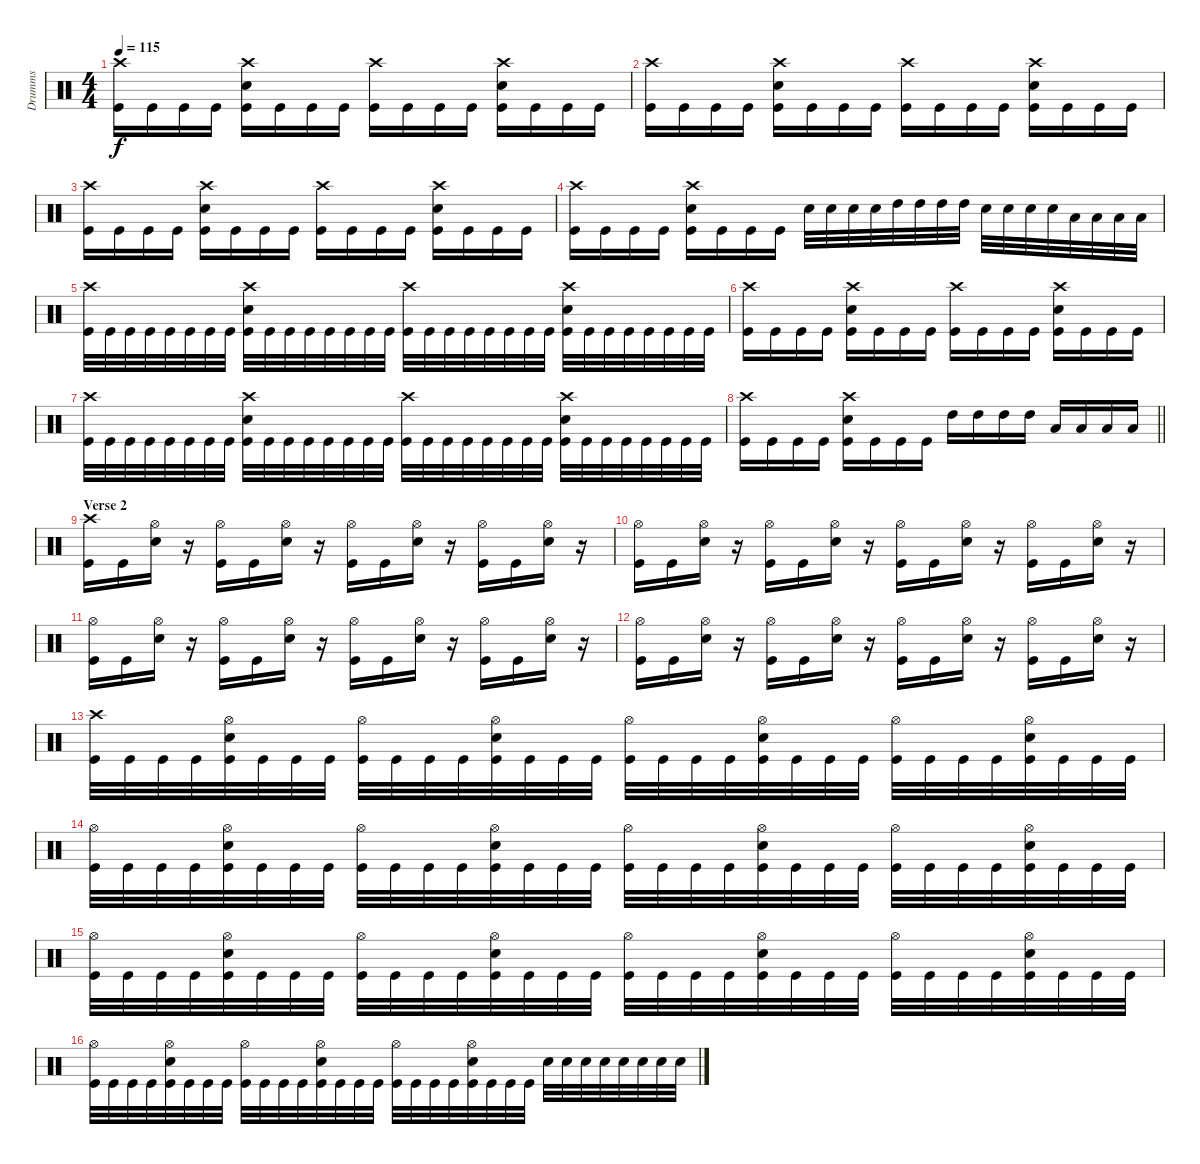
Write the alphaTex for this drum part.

\track ("Drumms" "Drumms") {instrument percussion}
\staff {score}
\articulation defaults
\ts (4 4)
\tempo 115
\clef neutral
\ks c
("Crash high (hit)" "Kick (hit)").16{dy f} "Kick (hit)".16 "Kick (hit)".16 "Kick (hit)".16 ("Crash high (hit)" "Snare (hit) 2" "Kick (hit)").16 "Kick (hit)".16 "Kick (hit)".16 "Kick (hit)".16 ("Crash high (hit)" "Kick (hit)").16 "Kick (hit)".16 "Kick (hit)".16 "Kick (hit)".16 ("Crash high (hit)" "Snare (hit) 2" "Kick (hit)").16 "Kick (hit)".16 "Kick (hit)".16 "Kick (hit)".16 |
("Crash high (hit)" "Kick (hit)").16 "Kick (hit)".16 "Kick (hit)".16 "Kick (hit)".16 ("Crash high (hit)" "Snare (hit) 2" "Kick (hit)").16 "Kick (hit)".16 "Kick (hit)".16 "Kick (hit)".16 ("Crash high (hit)" "Kick (hit)").16 "Kick (hit)".16 "Kick (hit)".16 "Kick (hit)".16 ("Crash high (hit)" "Snare (hit) 2" "Kick (hit)").16 "Kick (hit)".16 "Kick (hit)".16 "Kick (hit)".16 |
("Crash high (hit)" "Kick (hit)").16 "Kick (hit)".16 "Kick (hit)".16 "Kick (hit)".16 ("Crash high (hit)" "Snare (hit) 2" "Kick (hit)").16 "Kick (hit)".16 "Kick (hit)".16 "Kick (hit)".16 ("Crash high (hit)" "Kick (hit)").16 "Kick (hit)".16 "Kick (hit)".16 "Kick (hit)".16 ("Crash high (hit)" "Snare (hit) 2" "Kick (hit)").16 "Kick (hit)".16 "Kick (hit)".16 "Kick (hit)".16 |
("Crash high (hit)" "Kick (hit)").16 "Kick (hit)".16 "Kick (hit)".16 "Kick (hit)".16 ("Crash high (hit)" "Snare (hit) 2" "Kick (hit)").16 "Kick (hit)".16 "Kick (hit)".16 "Kick (hit)".16 "Snare (hit) 2".32 "Snare (hit) 2".32 "Snare (hit) 2".32 "Snare (hit) 2".32 "High Tom (hit)".32 "High Tom (hit)".32 "High Tom (hit)".32 "High Tom (hit)".32 "Snare (hit) 2".32 "Snare (hit) 2".32 "Snare (hit) 2".32 "Snare (hit) 2".32 "Low Tom (hit)".32 "Low Tom (hit)".32 "Low Tom (hit)".32 "Low Tom (hit)".32 |
("Crash high (hit)" "Kick (hit)").32 "Kick (hit)".32 "Kick (hit)".32 "Kick (hit)".32 "Kick (hit)".32 "Kick (hit)".32 "Kick (hit)".32 "Kick (hit)".32 ("Crash high (hit)" "Snare (hit) 2" "Kick (hit)").32 "Kick (hit)".32 "Kick (hit)".32 "Kick (hit)".32 "Kick (hit)".32 "Kick (hit)".32 "Kick (hit)".32 "Kick (hit)".32 ("Crash high (hit)" "Kick (hit)").32 "Kick (hit)".32 "Kick (hit)".32 "Kick (hit)".32 "Kick (hit)".32 "Kick (hit)".32 "Kick (hit)".32 "Kick (hit)".32 ("Crash high (hit)" "Snare (hit) 2" "Kick (hit)").32 "Kick (hit)".32 "Kick (hit)".32 "Kick (hit)".32 "Kick (hit)".32 "Kick (hit)".32 "Kick (hit)".32 "Kick (hit)".32 |
("Crash high (hit)" "Kick (hit)").16 "Kick (hit)".16 "Kick (hit)".16 "Kick (hit)".16 ("Crash high (hit)" "Snare (hit) 2" "Kick (hit)").16 "Kick (hit)".16 "Kick (hit)".16 "Kick (hit)".16 ("Crash high (hit)" "Kick (hit)").16 "Kick (hit)".16 "Kick (hit)".16 "Kick (hit)".16 ("Crash high (hit)" "Snare (hit) 2" "Kick (hit)").16 "Kick (hit)".16 "Kick (hit)".16 "Kick (hit)".16 |
("Crash high (hit)" "Kick (hit)").32 "Kick (hit)".32 "Kick (hit)".32 "Kick (hit)".32 "Kick (hit)".32 "Kick (hit)".32 "Kick (hit)".32 "Kick (hit)".32 ("Crash high (hit)" "Snare (hit) 2" "Kick (hit)").32 "Kick (hit)".32 "Kick (hit)".32 "Kick (hit)".32 "Kick (hit)".32 "Kick (hit)".32 "Kick (hit)".32 "Kick (hit)".32 ("Crash high (hit)" "Kick (hit)").32 "Kick (hit)".32 "Kick (hit)".32 "Kick (hit)".32 "Kick (hit)".32 "Kick (hit)".32 "Kick (hit)".32 "Kick (hit)".32 ("Crash high (hit)" "Snare (hit) 2" "Kick (hit)").32 "Kick (hit)".32 "Kick (hit)".32 "Kick (hit)".32 "Kick (hit)".32 "Kick (hit)".32 "Kick (hit)".32 "Kick (hit)".32 |
\barLineRight lightlight
("Crash high (hit)" "Kick (hit)").16 "Kick (hit)".16 "Kick (hit)".16 "Kick (hit)".16 ("Crash high (hit)" "Snare (hit) 2" "Kick (hit)").16 "Kick (hit)".16 "Kick (hit)".16 "Kick (hit)".16 "High Tom (hit)".16 "High Tom (hit)".16 "High Tom (hit)".16 "High Tom (hit)".16 "Low Tom (hit)".16 "Low Tom (hit)".16 "Low Tom (hit)".16 "Low Tom (hit)".16 |
\section ("" "Verse 2")
("Crash high (hit)" "Kick (hit)").16 "Kick (hit)".16 ("Hi-Hat (open)" "Snare (hit) 2").16 r.16 ("Hi-Hat (open)" "Kick (hit)").16 "Kick (hit)".16 ("Hi-Hat (open)" "Snare (hit) 2").16 r.16 ("Hi-Hat (open)" "Kick (hit)").16 "Kick (hit)".16 ("Hi-Hat (open)" "Snare (hit) 2").16 r.16 ("Hi-Hat (open)" "Kick (hit)").16 "Kick (hit)".16 ("Hi-Hat (open)" "Snare (hit) 2").16 r.16 |
("Hi-Hat (open)" "Kick (hit)").16 "Kick (hit)".16 ("Hi-Hat (open)" "Snare (hit) 2").16 r.16 ("Hi-Hat (open)" "Kick (hit)").16 "Kick (hit)".16 ("Hi-Hat (open)" "Snare (hit) 2").16 r.16 ("Hi-Hat (open)" "Kick (hit)").16 "Kick (hit)".16 ("Hi-Hat (open)" "Snare (hit) 2").16 r.16 ("Hi-Hat (open)" "Kick (hit)").16 "Kick (hit)".16 ("Hi-Hat (open)" "Snare (hit) 2").16 r.16 |
("Hi-Hat (open)" "Kick (hit)").16 "Kick (hit)".16 ("Hi-Hat (open)" "Snare (hit) 2").16 r.16 ("Hi-Hat (open)" "Kick (hit)").16 "Kick (hit)".16 ("Hi-Hat (open)" "Snare (hit) 2").16 r.16 ("Hi-Hat (open)" "Kick (hit)").16 "Kick (hit)".16 ("Hi-Hat (open)" "Snare (hit) 2").16 r.16 ("Hi-Hat (open)" "Kick (hit)").16 "Kick (hit)".16 ("Hi-Hat (open)" "Snare (hit) 2").16 r.16 |
("Hi-Hat (open)" "Kick (hit)").16 "Kick (hit)".16 ("Hi-Hat (open)" "Snare (hit) 2").16 r.16 ("Hi-Hat (open)" "Kick (hit)").16 "Kick (hit)".16 ("Hi-Hat (open)" "Snare (hit) 2").16 r.16 ("Hi-Hat (open)" "Kick (hit)").16 "Kick (hit)".16 ("Hi-Hat (open)" "Snare (hit) 2").16 r.16 ("Hi-Hat (open)" "Kick (hit)").16 "Kick (hit)".16 ("Hi-Hat (open)" "Snare (hit) 2").16 r.16 |
("Crash high (hit)" "Kick (hit)").32 "Kick (hit)".32 "Kick (hit)".32 "Kick (hit)".32 ("Hi-Hat (open)" "Snare (hit) 2" "Kick (hit)").32 "Kick (hit)".32 "Kick (hit)".32 "Kick (hit)".32 ("Hi-Hat (open)" "Kick (hit)").32 "Kick (hit)".32 "Kick (hit)".32 "Kick (hit)".32 ("Hi-Hat (open)" "Snare (hit) 2" "Kick (hit)").32 "Kick (hit)".32 "Kick (hit)".32 "Kick (hit)".32 ("Hi-Hat (open)" "Kick (hit)").32 "Kick (hit)".32 "Kick (hit)".32 "Kick (hit)".32 ("Hi-Hat (open)" "Snare (hit) 2" "Kick (hit)").32 "Kick (hit)".32 "Kick (hit)".32 "Kick (hit)".32 ("Hi-Hat (open)" "Kick (hit)").32 "Kick (hit)".32 "Kick (hit)".32 "Kick (hit)".32 ("Hi-Hat (open)" "Snare (hit) 2" "Kick (hit)").32 "Kick (hit)".32 "Kick (hit)".32 "Kick (hit)".32 |
("Hi-Hat (open)" "Kick (hit)").32 "Kick (hit)".32 "Kick (hit)".32 "Kick (hit)".32 ("Hi-Hat (open)" "Snare (hit) 2" "Kick (hit)").32 "Kick (hit)".32 "Kick (hit)".32 "Kick (hit)".32 ("Hi-Hat (open)" "Kick (hit)").32 "Kick (hit)".32 "Kick (hit)".32 "Kick (hit)".32 ("Hi-Hat (open)" "Snare (hit) 2" "Kick (hit)").32 "Kick (hit)".32 "Kick (hit)".32 "Kick (hit)".32 ("Hi-Hat (open)" "Kick (hit)").32 "Kick (hit)".32 "Kick (hit)".32 "Kick (hit)".32 ("Hi-Hat (open)" "Snare (hit) 2" "Kick (hit)").32 "Kick (hit)".32 "Kick (hit)".32 "Kick (hit)".32 ("Hi-Hat (open)" "Kick (hit)").32 "Kick (hit)".32 "Kick (hit)".32 "Kick (hit)".32 ("Hi-Hat (open)" "Snare (hit) 2" "Kick (hit)").32 "Kick (hit)".32 "Kick (hit)".32 "Kick (hit)".32 |
("Hi-Hat (open)" "Kick (hit)").32 "Kick (hit)".32 "Kick (hit)".32 "Kick (hit)".32 ("Hi-Hat (open)" "Snare (hit) 2" "Kick (hit)").32 "Kick (hit)".32 "Kick (hit)".32 "Kick (hit)".32 ("Hi-Hat (open)" "Kick (hit)").32 "Kick (hit)".32 "Kick (hit)".32 "Kick (hit)".32 ("Hi-Hat (open)" "Snare (hit) 2" "Kick (hit)").32 "Kick (hit)".32 "Kick (hit)".32 "Kick (hit)".32 ("Hi-Hat (open)" "Kick (hit)").32 "Kick (hit)".32 "Kick (hit)".32 "Kick (hit)".32 ("Hi-Hat (open)" "Snare (hit) 2" "Kick (hit)").32 "Kick (hit)".32 "Kick (hit)".32 "Kick (hit)".32 ("Hi-Hat (open)" "Kick (hit)").32 "Kick (hit)".32 "Kick (hit)".32 "Kick (hit)".32 ("Hi-Hat (open)" "Snare (hit) 2" "Kick (hit)").32 "Kick (hit)".32 "Kick (hit)".32 "Kick (hit)".32 |
("Hi-Hat (open)" "Kick (hit)").32 "Kick (hit)".32 "Kick (hit)".32 "Kick (hit)".32 ("Hi-Hat (open)" "Snare (hit) 2" "Kick (hit)").32 "Kick (hit)".32 "Kick (hit)".32 "Kick (hit)".32 ("Hi-Hat (open)" "Kick (hit)").32 "Kick (hit)".32 "Kick (hit)".32 "Kick (hit)".32 ("Hi-Hat (open)" "Snare (hit) 2" "Kick (hit)").32 "Kick (hit)".32 "Kick (hit)".32 "Kick (hit)".32 ("Hi-Hat (open)" "Kick (hit)").32 "Kick (hit)".32 "Kick (hit)".32 "Kick (hit)".32 ("Hi-Hat (open)" "Snare (hit) 2" "Kick (hit)").32 "Kick (hit)".32 "Kick (hit)".32 "Kick (hit)".32 "Snare (hit) 2".32 "Snare (hit) 2".32 "Snare (hit) 2".32 "Snare (hit) 2".32 "Snare (hit) 2".32 "Snare (hit) 2".32 "Snare (hit) 2".32 "Snare (hit) 2".32
